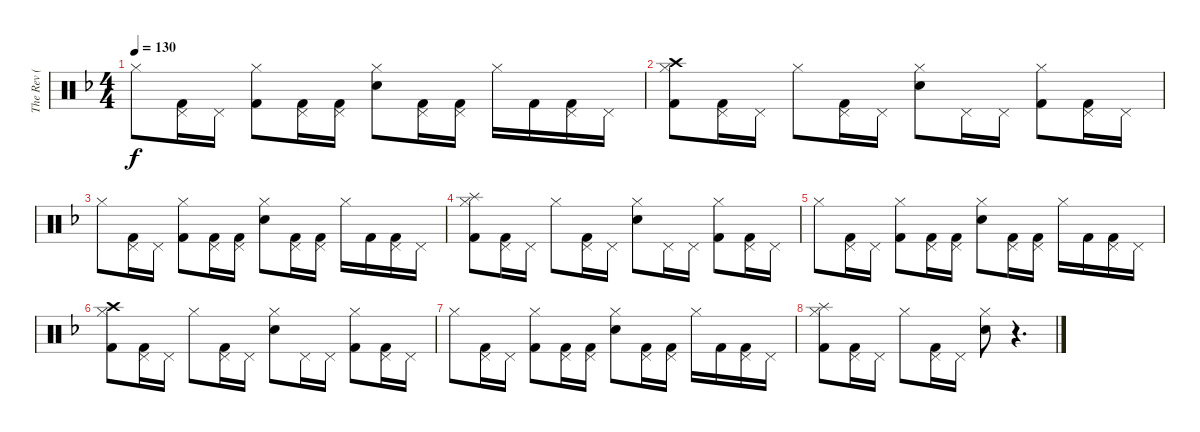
\track ("The Rev ( Drums )" "The Rev ( ") {instrument percussion}
\staff {score}
\articulation defaults
\ts (4 4)
\tempo 130
\clef neutral
\ks f "Hi-Hat (closed)".8{dy f}
("Pedal Hi-Hat (hit)" "Kick (hit) 2").16 "Pedal Hi-Hat (hit)".16 ("Hi-Hat (closed)" "Kick (hit) 2").8 ("Pedal Hi-Hat (hit)" "Kick (hit) 2").16 ("Pedal Hi-Hat (hit)" "Kick (hit) 2").16 ("Hi-Hat (closed)" "Snare (hit) 2").8 ("Pedal Hi-Hat (hit)" "Kick (hit) 2").16 ("Pedal Hi-Hat (hit)" "Kick (hit) 2").16 "Hi-Hat (closed)".16 "Kick (hit) 2".16 ("Pedal Hi-Hat (hit)" "Kick (hit) 2").16 "Pedal Hi-Hat (hit)".16 |
("Crash high (hit)" "Hi-Hat (closed)" "Kick (hit) 2").8 ("Pedal Hi-Hat (hit)" "Kick (hit) 2").16 "Pedal Hi-Hat (hit)".16 "Hi-Hat (closed)".8 ("Pedal Hi-Hat (hit)" "Kick (hit) 2").16 "Pedal Hi-Hat (hit)".16 ("Hi-Hat (closed)" "Snare (hit) 2").8 "Pedal Hi-Hat (hit)".16 "Pedal Hi-Hat (hit)".16 ("Hi-Hat (closed)" "Kick (hit) 2").8 ("Pedal Hi-Hat (hit)" "Kick (hit) 2").16 "Pedal Hi-Hat (hit)".16 |
"Hi-Hat (closed)".8 ("Pedal Hi-Hat (hit)" "Kick (hit) 2").16 "Pedal Hi-Hat (hit)".16 ("Hi-Hat (closed)" "Kick (hit) 2").8 ("Pedal Hi-Hat (hit)" "Kick (hit) 2").16 ("Pedal Hi-Hat (hit)" "Kick (hit) 2").16 ("Hi-Hat (closed)" "Snare (hit) 2").8 ("Pedal Hi-Hat (hit)" "Kick (hit) 2").16 ("Pedal Hi-Hat (hit)" "Kick (hit) 2").16 "Hi-Hat (closed)".16 "Kick (hit) 2".16 ("Pedal Hi-Hat (hit)" "Kick (hit) 2").16 "Pedal Hi-Hat (hit)".16 |
("Splash (hit)" "Hi-Hat (closed)" "Kick (hit) 2").8 ("Pedal Hi-Hat (hit)" "Kick (hit) 2").16 "Pedal Hi-Hat (hit)".16 "Hi-Hat (closed)".8 ("Pedal Hi-Hat (hit)" "Kick (hit) 2").16 "Pedal Hi-Hat (hit)".16 ("Hi-Hat (closed)" "Snare (hit) 2").8 "Pedal Hi-Hat (hit)".16 "Pedal Hi-Hat (hit)".16 ("Hi-Hat (closed)" "Kick (hit) 2").8 ("Pedal Hi-Hat (hit)" "Kick (hit) 2").16 "Pedal Hi-Hat (hit)".16 |
"Hi-Hat (closed)".8 ("Pedal Hi-Hat (hit)" "Kick (hit) 2").16 "Pedal Hi-Hat (hit)".16 ("Hi-Hat (closed)" "Kick (hit) 2").8 ("Pedal Hi-Hat (hit)" "Kick (hit) 2").16 ("Pedal Hi-Hat (hit)" "Kick (hit) 2").16 ("Hi-Hat (closed)" "Snare (hit) 2").8 ("Pedal Hi-Hat (hit)" "Kick (hit) 2").16 ("Pedal Hi-Hat (hit)" "Kick (hit) 2").16 "Hi-Hat (closed)".16 "Kick (hit) 2".16 ("Pedal Hi-Hat (hit)" "Kick (hit) 2").16 "Pedal Hi-Hat (hit)".16 |
("Crash high (hit)" "Hi-Hat (closed)" "Kick (hit) 2").8 ("Pedal Hi-Hat (hit)" "Kick (hit) 2").16 "Pedal Hi-Hat (hit)".16 "Hi-Hat (closed)".8 ("Pedal Hi-Hat (hit)" "Kick (hit) 2").16 "Pedal Hi-Hat (hit)".16 ("Hi-Hat (closed)" "Snare (hit) 2").8 "Pedal Hi-Hat (hit)".16 "Pedal Hi-Hat (hit)".16 ("Hi-Hat (closed)" "Kick (hit) 2").8 ("Pedal Hi-Hat (hit)" "Kick (hit) 2").16 "Pedal Hi-Hat (hit)".16 |
"Hi-Hat (closed)".8 ("Pedal Hi-Hat (hit)" "Kick (hit) 2").16 "Pedal Hi-Hat (hit)".16 ("Hi-Hat (closed)" "Kick (hit) 2").8 ("Pedal Hi-Hat (hit)" "Kick (hit) 2").16 ("Pedal Hi-Hat (hit)" "Kick (hit) 2").16 ("Hi-Hat (closed)" "Snare (hit) 2").8 ("Pedal Hi-Hat (hit)" "Kick (hit) 2").16 ("Pedal Hi-Hat (hit)" "Kick (hit) 2").16 "Hi-Hat (closed)".16 "Kick (hit) 2".16 ("Pedal Hi-Hat (hit)" "Kick (hit) 2").16 "Pedal Hi-Hat (hit)".16 |
("Splash (hit)" "Hi-Hat (closed)" "Kick (hit) 2").8 ("Pedal Hi-Hat (hit)" "Kick (hit) 2").16 "Pedal Hi-Hat (hit)".16 "Hi-Hat (closed)".8 ("Pedal Hi-Hat (hit)" "Kick (hit) 2").16 "Pedal Hi-Hat (hit)".16 ("Hi-Hat (closed)" "Snare (hit) 2").8 r.4{d}
